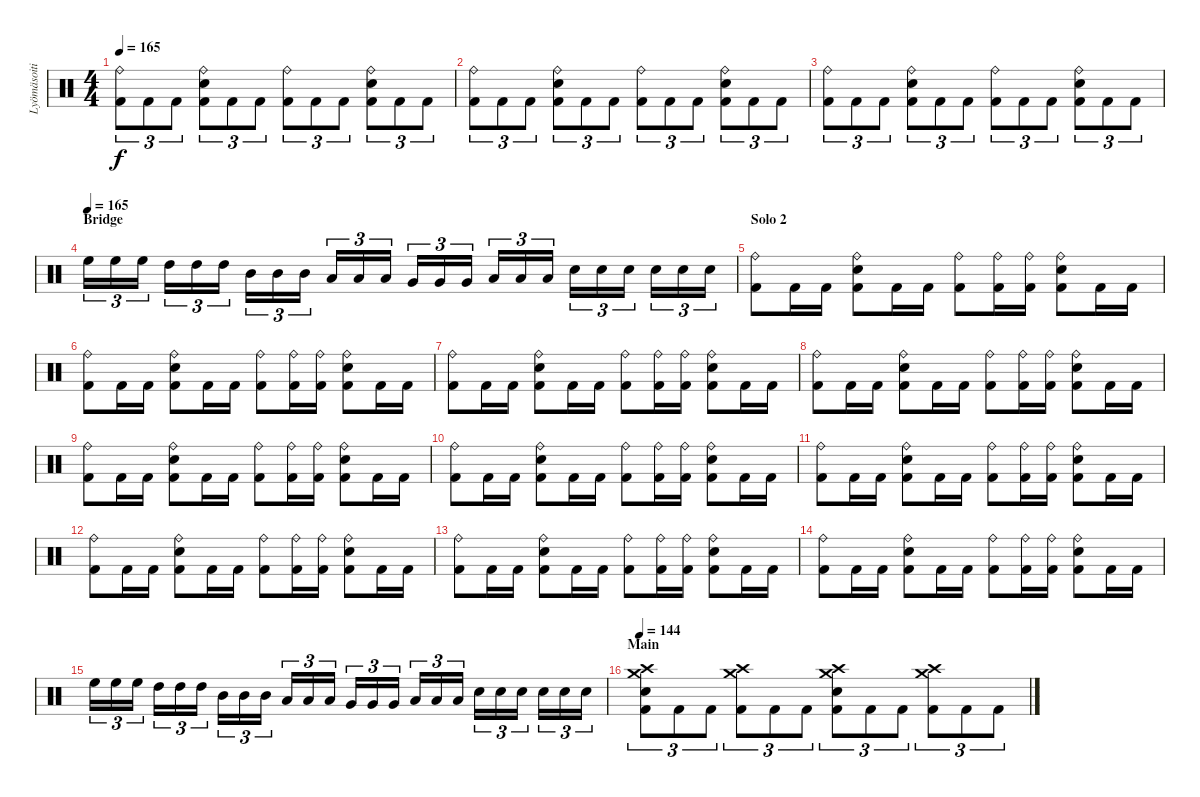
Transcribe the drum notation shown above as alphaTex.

\track ("Lyömäsoitin" "Lyömäsoiti") {instrument percussion}
\staff {score}
\articulation defaults
\ts (4 4)
\tempo 165
\clef neutral
\ks c
("Ride (bell)" "Kick (hit) 2").8{tu (3 2) dy f} "Kick (hit) 2".8{tu (3 2)} "Kick (hit) 2".8{tu (3 2)} ("Ride (bell)" "Snare (hit) 2" "Kick (hit) 2").8{tu (3 2)} "Kick (hit) 2".8{tu (3 2)} "Kick (hit) 2".8{tu (3 2)} ("Ride (bell)" "Kick (hit) 2").8{tu (3 2)} "Kick (hit) 2".8{tu (3 2)} "Kick (hit) 2".8{tu (3 2)} ("Ride (bell)" "Snare (hit) 2" "Kick (hit) 2").8{tu (3 2)} "Kick (hit) 2".8{tu (3 2)} "Kick (hit) 2".8{tu (3 2)} |
("Ride (bell)" "Kick (hit) 2").8{tu (3 2)} "Kick (hit) 2".8{tu (3 2)} "Kick (hit) 2".8{tu (3 2)} ("Ride (bell)" "Snare (hit) 2" "Kick (hit) 2").8{tu (3 2)} "Kick (hit) 2".8{tu (3 2)} "Kick (hit) 2".8{tu (3 2)} ("Ride (bell)" "Kick (hit) 2").8{tu (3 2)} "Kick (hit) 2".8{tu (3 2)} "Kick (hit) 2".8{tu (3 2)} ("Ride (bell)" "Snare (hit) 2" "Kick (hit) 2").8{tu (3 2)} "Kick (hit) 2".8{tu (3 2)} "Kick (hit) 2".8{tu (3 2)} |
("Ride (bell)" "Kick (hit) 2").8{tu (3 2)} "Kick (hit) 2".8{tu (3 2)} "Kick (hit) 2".8{tu (3 2)} ("Ride (bell)" "Snare (hit) 2" "Kick (hit) 2").8{tu (3 2)} "Kick (hit) 2".8{tu (3 2)} "Kick (hit) 2".8{tu (3 2)} ("Ride (bell)" "Kick (hit) 2").8{tu (3 2)} "Kick (hit) 2".8{tu (3 2)} "Kick (hit) 2".8{tu (3 2)} ("Ride (bell)" "Snare (hit) 2" "Kick (hit) 2").8{tu (3 2)} "Kick (hit) 2".8{tu (3 2)} "Kick (hit) 2".8{tu (3 2)} |
\section ("" "Bridge")
\tempo (165)
"High Floor Tom (hit)".16{tu (3 2)} "High Floor Tom (hit)".16{tu (3 2)} "High Floor Tom (hit)".16{tu (3 2)} "High Tom (hit)".16{tu (3 2)} "High Tom (hit)".16{tu (3 2)} "High Tom (hit)".16{tu (3 2)} "Mid Tom (hit)".16{tu (3 2)} "Mid Tom (hit)".16{tu (3 2)} "Mid Tom (hit)".16{tu (3 2)} "Low Tom (hit)".16{tu (3 2)} "Low Tom (hit)".16{tu (3 2)} "Low Tom (hit)".16{tu (3 2)} "Very Low Tom (hit)".16{tu (3 2)} "Very Low Tom (hit)".16{tu (3 2)} "Very Low Tom (hit)".16{tu (3 2)} "Low Floor Tom (hit)".16{tu (3 2)} "Low Floor Tom (hit)".16{tu (3 2)} "Low Floor Tom (hit)".16{tu (3 2)} "Snare (hit) 2".16{tu (3 2)} "Snare (hit) 2".16{tu (3 2)} "Snare (hit) 2".16{tu (3 2)} "Snare (hit) 2".16{tu (3 2)} "Snare (hit) 2".16{tu (3 2)} "Snare (hit) 2".16{tu (3 2)} |
\section ("" "Solo 2")
("Ride (bell)" "Kick (hit) 2").8 "Kick (hit) 2".16 "Kick (hit) 2".16 ("Ride (bell)" "Snare (hit) 2" "Kick (hit) 2").8 "Kick (hit) 2".16 "Kick (hit) 2".16 ("Ride (bell)" "Kick (hit) 2").8 ("Ride (bell)" "Kick (hit) 2").16 ("Ride (bell)" "Kick (hit) 2").16 ("Ride (bell)" "Snare (hit) 2" "Kick (hit) 2").8 "Kick (hit) 2".16 "Kick (hit) 2".16 |
("Ride (bell)" "Kick (hit) 2").8 "Kick (hit) 2".16 "Kick (hit) 2".16 ("Ride (bell)" "Snare (hit) 2" "Kick (hit) 2").8 "Kick (hit) 2".16 "Kick (hit) 2".16 ("Ride (bell)" "Kick (hit) 2").8 ("Ride (bell)" "Kick (hit) 2").16 ("Ride (bell)" "Kick (hit) 2").16 ("Ride (bell)" "Snare (hit) 2" "Kick (hit) 2").8 "Kick (hit) 2".16 "Kick (hit) 2".16 |
("Ride (bell)" "Kick (hit) 2").8 "Kick (hit) 2".16 "Kick (hit) 2".16 ("Ride (bell)" "Snare (hit) 2" "Kick (hit) 2").8 "Kick (hit) 2".16 "Kick (hit) 2".16 ("Ride (bell)" "Kick (hit) 2").8 ("Ride (bell)" "Kick (hit) 2").16 ("Ride (bell)" "Kick (hit) 2").16 ("Ride (bell)" "Snare (hit) 2" "Kick (hit) 2").8 "Kick (hit) 2".16 "Kick (hit) 2".16 |
("Ride (bell)" "Kick (hit) 2").8 "Kick (hit) 2".16 "Kick (hit) 2".16 ("Ride (bell)" "Snare (hit) 2" "Kick (hit) 2").8 "Kick (hit) 2".16 "Kick (hit) 2".16 ("Ride (bell)" "Kick (hit) 2").8 ("Ride (bell)" "Kick (hit) 2").16 ("Ride (bell)" "Kick (hit) 2").16 ("Ride (bell)" "Snare (hit) 2" "Kick (hit) 2").8 "Kick (hit) 2".16 "Kick (hit) 2".16 |
("Ride (bell)" "Kick (hit) 2").8 "Kick (hit) 2".16 "Kick (hit) 2".16 ("Ride (bell)" "Snare (hit) 2" "Kick (hit) 2").8 "Kick (hit) 2".16 "Kick (hit) 2".16 ("Ride (bell)" "Kick (hit) 2").8 ("Ride (bell)" "Kick (hit) 2").16 ("Ride (bell)" "Kick (hit) 2").16 ("Ride (bell)" "Snare (hit) 2" "Kick (hit) 2").8 "Kick (hit) 2".16 "Kick (hit) 2".16 |
("Ride (bell)" "Kick (hit) 2").8 "Kick (hit) 2".16 "Kick (hit) 2".16 ("Ride (bell)" "Snare (hit) 2" "Kick (hit) 2").8 "Kick (hit) 2".16 "Kick (hit) 2".16 ("Ride (bell)" "Kick (hit) 2").8 ("Ride (bell)" "Kick (hit) 2").16 ("Ride (bell)" "Kick (hit) 2").16 ("Ride (bell)" "Snare (hit) 2" "Kick (hit) 2").8 "Kick (hit) 2".16 "Kick (hit) 2".16 |
("Ride (bell)" "Kick (hit) 2").8 "Kick (hit) 2".16 "Kick (hit) 2".16 ("Ride (bell)" "Snare (hit) 2" "Kick (hit) 2").8 "Kick (hit) 2".16 "Kick (hit) 2".16 ("Ride (bell)" "Kick (hit) 2").8 ("Ride (bell)" "Kick (hit) 2").16 ("Ride (bell)" "Kick (hit) 2").16 ("Ride (bell)" "Snare (hit) 2" "Kick (hit) 2").8 "Kick (hit) 2".16 "Kick (hit) 2".16 |
("Ride (bell)" "Kick (hit) 2").8 "Kick (hit) 2".16 "Kick (hit) 2".16 ("Ride (bell)" "Snare (hit) 2" "Kick (hit) 2").8 "Kick (hit) 2".16 "Kick (hit) 2".16 ("Ride (bell)" "Kick (hit) 2").8 ("Ride (bell)" "Kick (hit) 2").16 ("Ride (bell)" "Kick (hit) 2").16 ("Ride (bell)" "Snare (hit) 2" "Kick (hit) 2").8 "Kick (hit) 2".16 "Kick (hit) 2".16 |
("Ride (bell)" "Kick (hit) 2").8 "Kick (hit) 2".16 "Kick (hit) 2".16 ("Ride (bell)" "Snare (hit) 2" "Kick (hit) 2").8 "Kick (hit) 2".16 "Kick (hit) 2".16 ("Ride (bell)" "Kick (hit) 2").8 ("Ride (bell)" "Kick (hit) 2").16 ("Ride (bell)" "Kick (hit) 2").16 ("Ride (bell)" "Snare (hit) 2" "Kick (hit) 2").8 "Kick (hit) 2".16 "Kick (hit) 2".16 |
("Ride (bell)" "Kick (hit) 2").8 "Kick (hit) 2".16 "Kick (hit) 2".16 ("Ride (bell)" "Snare (hit) 2" "Kick (hit) 2").8 "Kick (hit) 2".16 "Kick (hit) 2".16 ("Ride (bell)" "Kick (hit) 2").8 ("Ride (bell)" "Kick (hit) 2").16 ("Ride (bell)" "Kick (hit) 2").16 ("Ride (bell)" "Snare (hit) 2" "Kick (hit) 2").8 "Kick (hit) 2".16 "Kick (hit) 2".16 |
"High Floor Tom (hit)".16{tu (3 2)} "High Floor Tom (hit)".16{tu (3 2)} "High Floor Tom (hit)".16{tu (3 2)} "High Tom (hit)".16{tu (3 2)} "High Tom (hit)".16{tu (3 2)} "High Tom (hit)".16{tu (3 2)} "Mid Tom (hit)".16{tu (3 2)} "Mid Tom (hit)".16{tu (3 2)} "Mid Tom (hit)".16{tu (3 2)} "Low Tom (hit)".16{tu (3 2)} "Low Tom (hit)".16{tu (3 2)} "Low Tom (hit)".16{tu (3 2)} "Very Low Tom (hit)".16{tu (3 2)} "Very Low Tom (hit)".16{tu (3 2)} "Very Low Tom (hit)".16{tu (3 2)} "Low Floor Tom (hit)".16{tu (3 2)} "Low Floor Tom (hit)".16{tu (3 2)} "Low Floor Tom (hit)".16{tu (3 2)} "Snare (hit) 2".16{tu (3 2)} "Snare (hit) 2".16{tu (3 2)} "Snare (hit) 2".16{tu (3 2)} "Snare (hit) 2".16{tu (3 2)} "Snare (hit) 2".16{tu (3 2)} "Snare (hit) 2".16{tu (3 2)} |
\section ("" "Main")
\tempo 144
("Crash medium (hit)" "Crash high (hit)" "Snare (hit) 2" "Kick (hit) 2").8{tu (3 2)} "Kick (hit) 2".8{tu (3 2)} "Kick (hit) 2".8{tu (3 2)} ("Crash medium (hit)" "Crash high (hit)" "Kick (hit) 2").8{tu (3 2)} "Kick (hit) 2".8{tu (3 2)} "Kick (hit) 2".8{tu (3 2)} ("Crash medium (hit)" "Crash high (hit)" "Snare (hit) 2" "Kick (hit) 2").8{tu (3 2)} "Kick (hit) 2".8{tu (3 2)} "Kick (hit) 2".8{tu (3 2)} ("Crash medium (hit)" "Crash high (hit)" "Kick (hit) 2").8{tu (3 2)} "Kick (hit) 2".8{tu (3 2)} "Kick (hit) 2".8{tu (3 2)}
